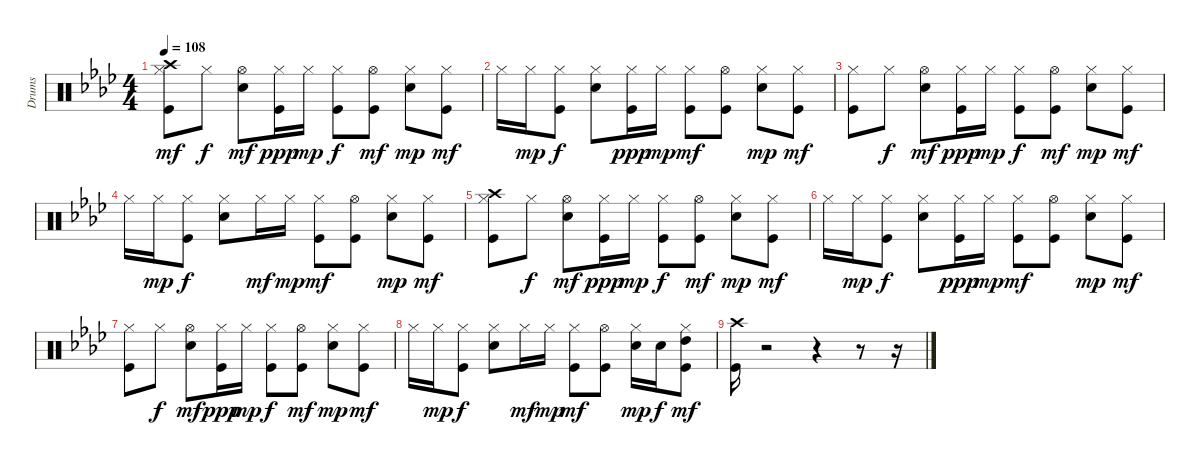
\track ("Drums" "Drums") {instrument percussion}
\staff {score}
\articulation defaults
\ts (4 4)
\tempo 108
\clef neutral
\ks ab
("Kick (hit)" "Hi-Hat (closed)" "Crash high (hit)").8{dy mf} "Hi-Hat (closed)".8{dy f} ("Electric Snare (hit)" "Hi-Hat (open)").8{dy mf} ("Hi-Hat (closed)" "Kick (hit)").16{dy ppp} "Hi-Hat (closed)".16{dy mp} ("Kick (hit)" "Hi-Hat (closed)").8{dy f} ("Kick (hit)" "Hi-Hat (open)").8{dy mf} ("Electric Snare (hit)" "Hi-Hat (closed)").8{dy mp} ("Kick (hit)" "Hi-Hat (closed)").8{dy mf} |
"Hi-Hat (closed)".16 "Hi-Hat (closed)".16{dy mp} ("Kick (hit)" "Hi-Hat (closed)").8{dy f} ("Electric Snare (hit)" "Hi-Hat (closed)").8 ("Hi-Hat (closed)" "Kick (hit)").16{dy ppp} "Hi-Hat (closed)".16{dy mp} ("Kick (hit)" "Hi-Hat (closed)").8{dy mf} ("Kick (hit)" "Hi-Hat (open)").8 ("Electric Snare (hit)" "Hi-Hat (closed)").8{dy mp} ("Kick (hit)" "Hi-Hat (closed)").8{dy mf} |
("Kick (hit)" "Hi-Hat (closed)").8 "Hi-Hat (closed)".8{dy f} ("Electric Snare (hit)" "Hi-Hat (open)").8{dy mf} ("Hi-Hat (closed)" "Kick (hit)").16{dy ppp} "Hi-Hat (closed)".16{dy mp} ("Kick (hit)" "Hi-Hat (closed)").8{dy f} ("Kick (hit)" "Hi-Hat (open)").8{dy mf} ("Electric Snare (hit)" "Hi-Hat (closed)").8{dy mp} ("Kick (hit)" "Hi-Hat (closed)").8{dy mf} |
"Hi-Hat (closed)".16 "Hi-Hat (closed)".16{dy mp} ("Kick (hit)" "Hi-Hat (closed)").8{dy f} ("Electric Snare (hit)" "Hi-Hat (closed)").8 "Hi-Hat (closed)".16{dy mf} "Hi-Hat (closed)".16{dy mp} ("Kick (hit)" "Hi-Hat (closed)").8{dy mf} ("Kick (hit)" "Hi-Hat (open)").8 ("Electric Snare (hit)" "Hi-Hat (closed)").8{dy mp} ("Kick (hit)" "Hi-Hat (closed)").8{dy mf} |
("Kick (hit)" "Hi-Hat (closed)" "Crash high (hit)").8 "Hi-Hat (closed)".8{dy f} ("Electric Snare (hit)" "Hi-Hat (open)").8{dy mf} ("Hi-Hat (closed)" "Kick (hit)").16{dy ppp} "Hi-Hat (closed)".16{dy mp} ("Kick (hit)" "Hi-Hat (closed)").8{dy f} ("Kick (hit)" "Hi-Hat (open)").8{dy mf} ("Electric Snare (hit)" "Hi-Hat (closed)").8{dy mp} ("Kick (hit)" "Hi-Hat (closed)").8{dy mf} |
"Hi-Hat (closed)".16 "Hi-Hat (closed)".16{dy mp} ("Kick (hit)" "Hi-Hat (closed)").8{dy f} ("Electric Snare (hit)" "Hi-Hat (closed)").8 ("Hi-Hat (closed)" "Kick (hit)").16{dy ppp} "Hi-Hat (closed)".16{dy mp} ("Kick (hit)" "Hi-Hat (closed)").8{dy mf} ("Kick (hit)" "Hi-Hat (open)").8 ("Electric Snare (hit)" "Hi-Hat (closed)").8{dy mp} ("Kick (hit)" "Hi-Hat (closed)").8{dy mf} |
("Kick (hit)" "Hi-Hat (closed)").8 "Hi-Hat (closed)".8{dy f} ("Electric Snare (hit)" "Hi-Hat (open)").8{dy mf} ("Hi-Hat (closed)" "Kick (hit)").16{dy ppp} "Hi-Hat (closed)".16{dy mp} ("Kick (hit)" "Hi-Hat (closed)").8{dy f} ("Kick (hit)" "Hi-Hat (open)").8{dy mf} ("Electric Snare (hit)" "Hi-Hat (closed)").8{dy mp} ("Kick (hit)" "Hi-Hat (closed)").8{dy mf} |
"Hi-Hat (closed)".16 "Hi-Hat (closed)".16{dy mp} ("Kick (hit)" "Hi-Hat (closed)").8{dy f} ("Electric Snare (hit)" "Hi-Hat (closed)").8 "Hi-Hat (closed)".16{dy mf} "Hi-Hat (closed)".16{dy mp} ("Kick (hit)" "Hi-Hat (closed)").8{dy mf} ("Kick (hit)" "Hi-Hat (open)").8 ("Electric Snare (hit)" "Hi-Hat (closed)").16{dy mp} "Electric Snare (hit)".16{dy f} ("Kick (hit)" "Hi-Hat (closed)" "High Tom (hit)").8{dy mf} |
("Kick (hit)" "Crash high (hit)").16 r.2 r.4 r.8 r.16
